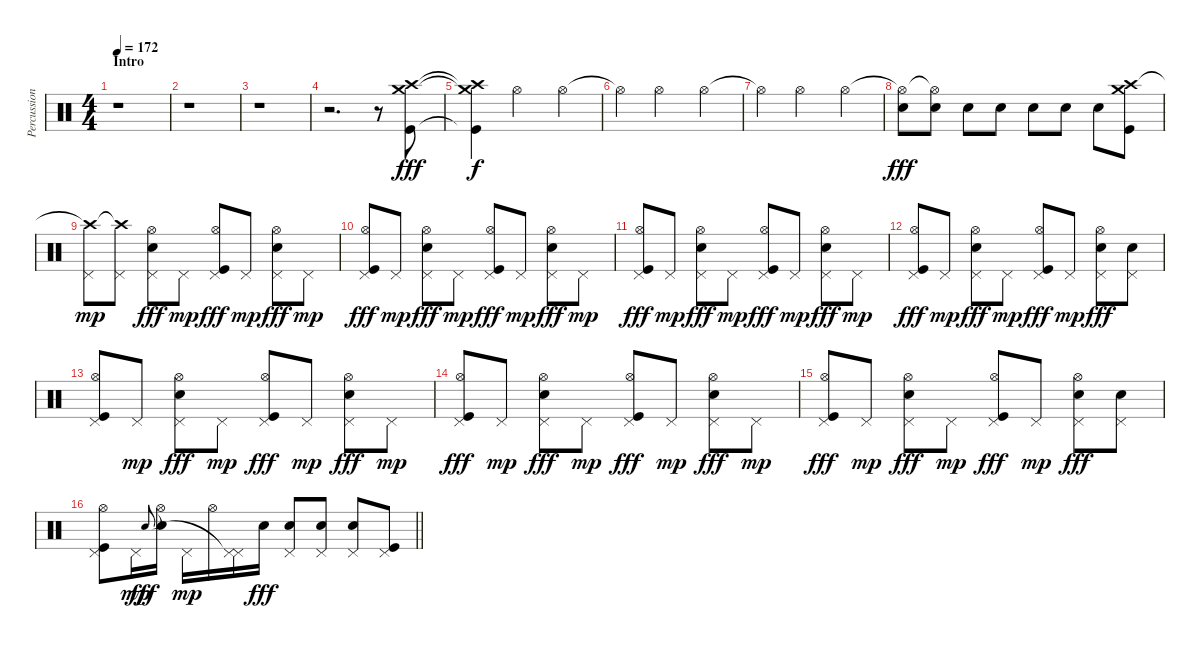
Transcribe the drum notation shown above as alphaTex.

\track ("Percussion" "Percussion") {instrument percussion}
\staff {score}
\articulation defaults
\ts (4 4)
\section ("" "Intro")
\tempo 172
\clef neutral
\ks c
r.1{dy fff} |
r.1 |
r.1 |
r.2{d} r.8 ("Crash high (hit)" "Crash medium (hit)" "Kick (hit)").8 |
("Crash high (hit)"{t} "Crash medium (hit)"{t} "Kick (hit)"{t}).4{dy f} "Hi-Hat (open)".2 "Hi-Hat (open)".4 |
"Hi-Hat (open)"{t}.4 "Hi-Hat (open)".2 "Hi-Hat (open)".4 |
"Hi-Hat (open)"{t}.4 "Hi-Hat (open)".2 "Hi-Hat (open)".4 |
("Hi-Hat (open)"{t} "Electric Snare (hit)").8{dy fff} ("Hi-Hat (open)"{t} "Electric Snare (hit)").8 "Electric Snare (hit)".8 "Electric Snare (hit)".8 "Electric Snare (hit)".8 "Electric Snare (hit)".8 "Electric Snare (hit)".8 ("Crash medium (hit)" "Crash high (hit)" "Kick (hit)").8 |
("Pedal Hi-Hat (hit)" "Crash high (hit)"{t}).8{dy mp} ("Pedal Hi-Hat (hit)" "Crash high (hit)"{t}).8 ("Pedal Hi-Hat (hit)" "Hi-Hat (open)" "Electric Snare (hit)").8{dy fff} "Pedal Hi-Hat (hit)".8{dy mp} ("Pedal Hi-Hat (hit)" "Hi-Hat (open)" "Kick (hit)").8{dy fff} "Pedal Hi-Hat (hit)".8{dy mp} ("Pedal Hi-Hat (hit)" "Hi-Hat (open)" "Electric Snare (hit)").8{dy fff} "Pedal Hi-Hat (hit)".8{dy mp} |
("Pedal Hi-Hat (hit)" "Hi-Hat (open)" "Kick (hit)").8{dy fff} "Pedal Hi-Hat (hit)".8{dy mp} ("Pedal Hi-Hat (hit)" "Hi-Hat (open)" "Electric Snare (hit)").8{dy fff} "Pedal Hi-Hat (hit)".8{dy mp} ("Pedal Hi-Hat (hit)" "Hi-Hat (open)" "Kick (hit)").8{dy fff} "Pedal Hi-Hat (hit)".8{dy mp} ("Pedal Hi-Hat (hit)" "Hi-Hat (open)" "Electric Snare (hit)").8{dy fff} "Pedal Hi-Hat (hit)".8{dy mp} |
("Pedal Hi-Hat (hit)" "Hi-Hat (open)" "Kick (hit)").8{dy fff} "Pedal Hi-Hat (hit)".8{dy mp} ("Pedal Hi-Hat (hit)" "Hi-Hat (open)" "Electric Snare (hit)").8{dy fff} "Pedal Hi-Hat (hit)".8{dy mp} ("Pedal Hi-Hat (hit)" "Hi-Hat (open)" "Kick (hit)").8{dy fff} "Pedal Hi-Hat (hit)".8{dy mp} ("Pedal Hi-Hat (hit)" "Hi-Hat (open)" "Electric Snare (hit)").8{dy fff} "Pedal Hi-Hat (hit)".8{dy mp} |
("Pedal Hi-Hat (hit)" "Hi-Hat (open)" "Kick (hit)").8{dy fff} "Pedal Hi-Hat (hit)".8{dy mp} ("Pedal Hi-Hat (hit)" "Hi-Hat (open)" "Electric Snare (hit)").8{dy fff} "Pedal Hi-Hat (hit)".8{dy mp} ("Pedal Hi-Hat (hit)" "Hi-Hat (open)" "Kick (hit)").8{dy fff} "Pedal Hi-Hat (hit)".8{dy mp} ("Pedal Hi-Hat (hit)" "Hi-Hat (open)" "Electric Snare (hit)").8{dy fff} ("Pedal Hi-Hat (hit)" "Electric Snare (hit)").8 |
("Pedal Hi-Hat (hit)" "Hi-Hat (open)" "Kick (hit)").8 "Pedal Hi-Hat (hit)".8{dy mp} ("Pedal Hi-Hat (hit)" "Hi-Hat (open)" "Electric Snare (hit)").8{dy fff} "Pedal Hi-Hat (hit)".8{dy mp} ("Pedal Hi-Hat (hit)" "Hi-Hat (open)" "Kick (hit)").8{dy fff} "Pedal Hi-Hat (hit)".8{dy mp} ("Pedal Hi-Hat (hit)" "Hi-Hat (open)" "Electric Snare (hit)").8{dy fff} "Pedal Hi-Hat (hit)".8{dy mp} |
("Pedal Hi-Hat (hit)" "Hi-Hat (open)" "Kick (hit)").8{dy fff} "Pedal Hi-Hat (hit)".8{dy mp} ("Pedal Hi-Hat (hit)" "Hi-Hat (open)" "Electric Snare (hit)").8{dy fff} "Pedal Hi-Hat (hit)".8{dy mp} ("Pedal Hi-Hat (hit)" "Hi-Hat (open)" "Kick (hit)").8{dy fff} "Pedal Hi-Hat (hit)".8{dy mp} ("Pedal Hi-Hat (hit)" "Hi-Hat (open)" "Electric Snare (hit)").8{dy fff} "Pedal Hi-Hat (hit)".8{dy mp} |
("Pedal Hi-Hat (hit)" "Hi-Hat (open)" "Kick (hit)").8{dy fff} "Pedal Hi-Hat (hit)".8{dy mp} ("Pedal Hi-Hat (hit)" "Hi-Hat (open)" "Electric Snare (hit)").8{dy fff} "Pedal Hi-Hat (hit)".8{dy mp} ("Pedal Hi-Hat (hit)" "Hi-Hat (open)" "Kick (hit)").8{dy fff} "Pedal Hi-Hat (hit)".8{dy mp} ("Pedal Hi-Hat (hit)" "Hi-Hat (open)" "Electric Snare (hit)").8{dy fff} ("Pedal Hi-Hat (hit)" "Electric Snare (hit)").8 |
\barLineRight lightlight
("Pedal Hi-Hat (hit)" "Hi-Hat (open)" "Kick (hit)").8 "Pedal Hi-Hat (hit)".16{dy mp} "Electric Snare (hit)".8{gr onbeat dy fff} ("Hi-Hat (open)"{t} "Electric Snare (hit)").16 "Pedal Hi-Hat (hit)".16{dy mp} "Hi-Hat (open)".16 ("Pedal Hi-Hat (hit)" "Pedal Hi-Hat (hit)"{t}).16 "Electric Snare (hit)".16{dy fff} ("Pedal Hi-Hat (hit)" "Electric Snare (hit)").8 ("Pedal Hi-Hat (hit)" "Electric Snare (hit)").8 ("Pedal Hi-Hat (hit)" "Electric Snare (hit)").8 ("Pedal Hi-Hat (hit)" "Kick (hit)").8
